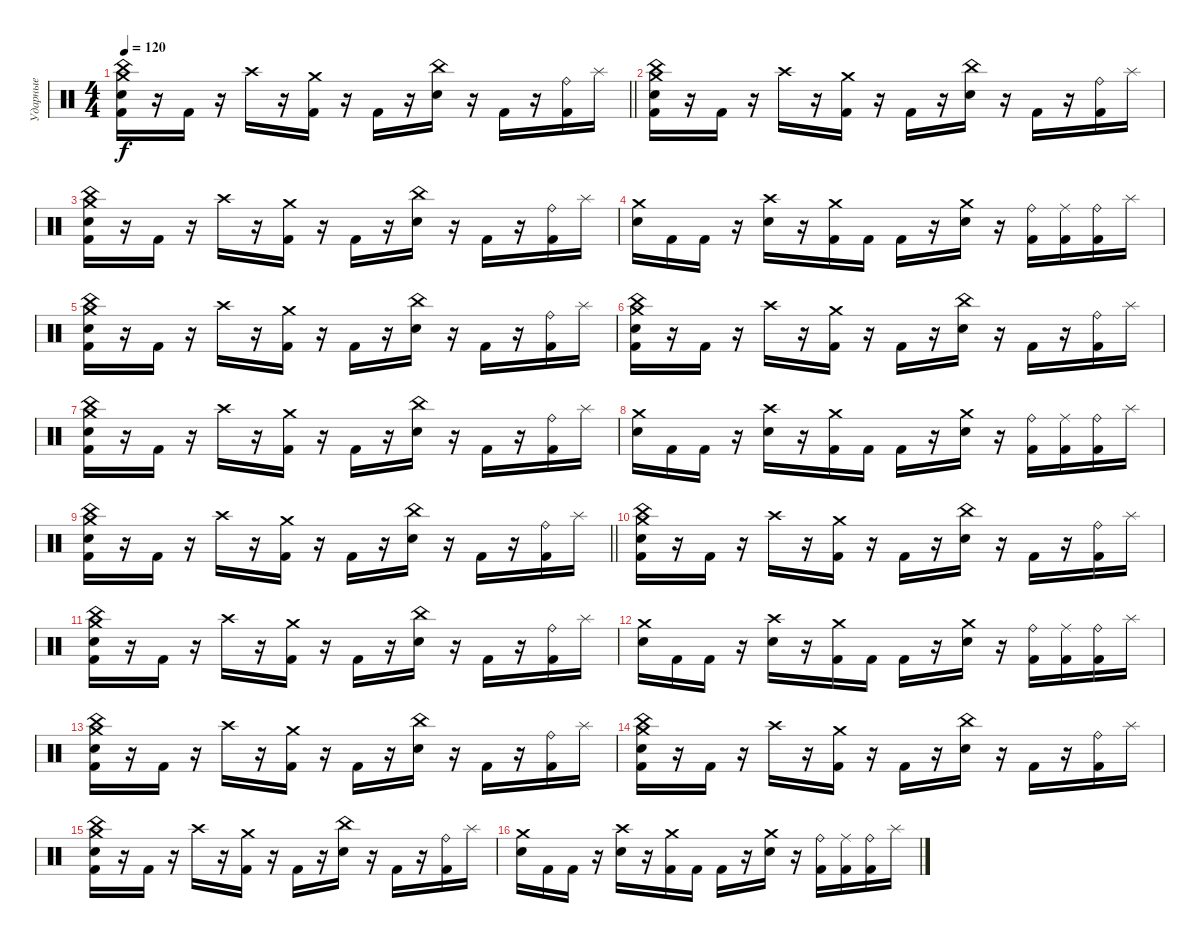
\track ("Ударные" "Ударные") {instrument percussion}
\staff {score}
\articulation defaults
\ts (4 4)
\tempo 120
\clef neutral
\barLineRight lightlight
\ks c
("Crash medium (hit)" "China (hit)" "Electric Snare (hit)" "Kick (hit) 2").16{dy f} r.16 "Kick (hit) 2".16 r.16 "Crash high (hit)".16 r.16 ("Crash medium (hit)" "Kick (hit) 2").16 r.16 "Kick (hit) 2".16 r.16 ("China (hit)" "Electric Snare (hit)").16 r.16 "Kick (hit) 2".16 r.16 ("Ride (bell)" "Kick (hit) 2").16 "Splash (hit)".16 |
("Crash medium (hit)" "China (hit)" "Electric Snare (hit)" "Kick (hit) 2").16 r.16 "Kick (hit) 2".16 r.16 "Crash high (hit)".16 r.16 ("Crash medium (hit)" "Kick (hit) 2").16 r.16 "Kick (hit) 2".16 r.16 ("China (hit)" "Electric Snare (hit)").16 r.16 "Kick (hit) 2".16 r.16 ("Ride (bell)" "Kick (hit) 2").16 "Splash (hit)".16 |
("Crash medium (hit)" "China (hit)" "Electric Snare (hit)" "Kick (hit) 2").16 r.16 "Kick (hit) 2".16 r.16 "Crash high (hit)".16 r.16 ("Crash medium (hit)" "Kick (hit) 2").16 r.16 "Kick (hit) 2".16 r.16 ("China (hit)" "Electric Snare (hit)").16 r.16 "Kick (hit) 2".16 r.16 ("Ride (bell)" "Kick (hit) 2").16 "Splash (hit)".16 |
("Crash medium (hit)" "Electric Snare (hit)").16 "Kick (hit) 2".16 "Kick (hit) 2".16 r.16 ("Crash high (hit)" "Electric Snare (hit)").16 r.16 ("Crash medium (hit)" "Kick (hit) 2").16 "Kick (hit) 2".16 "Kick (hit) 2".16 r.16 ("Crash medium (hit)" "Electric Snare (hit)").16 r.16 ("Ride (bell)" "Kick (hit) 2").16 ("Ride (middle)" "Kick (hit) 2").16 ("Ride (bell)" "Kick (hit) 2").16 "Splash (hit)".16 |
("Crash medium (hit)" "China (hit)" "Electric Snare (hit)" "Kick (hit) 2").16 r.16 "Kick (hit) 2".16 r.16 "Crash high (hit)".16 r.16 ("Crash medium (hit)" "Kick (hit) 2").16 r.16 "Kick (hit) 2".16 r.16 ("China (hit)" "Electric Snare (hit)").16 r.16 "Kick (hit) 2".16 r.16 ("Ride (bell)" "Kick (hit) 2").16 "Splash (hit)".16 |
("Crash medium (hit)" "China (hit)" "Electric Snare (hit)" "Kick (hit) 2").16 r.16 "Kick (hit) 2".16 r.16 "Crash high (hit)".16 r.16 ("Crash medium (hit)" "Kick (hit) 2").16 r.16 "Kick (hit) 2".16 r.16 ("China (hit)" "Electric Snare (hit)").16 r.16 "Kick (hit) 2".16 r.16 ("Ride (bell)" "Kick (hit) 2").16 "Splash (hit)".16 |
("Crash medium (hit)" "China (hit)" "Electric Snare (hit)" "Kick (hit) 2").16 r.16 "Kick (hit) 2".16 r.16 "Crash high (hit)".16 r.16 ("Crash medium (hit)" "Kick (hit) 2").16 r.16 "Kick (hit) 2".16 r.16 ("China (hit)" "Electric Snare (hit)").16 r.16 "Kick (hit) 2".16 r.16 ("Ride (bell)" "Kick (hit) 2").16 "Splash (hit)".16 |
("Crash medium (hit)" "Electric Snare (hit)").16 "Kick (hit) 2".16 "Kick (hit) 2".16 r.16 ("Crash high (hit)" "Electric Snare (hit)").16 r.16 ("Crash medium (hit)" "Kick (hit) 2").16 "Kick (hit) 2".16 "Kick (hit) 2".16 r.16 ("Crash medium (hit)" "Electric Snare (hit)").16 r.16 ("Ride (bell)" "Kick (hit) 2").16 ("Ride (middle)" "Kick (hit) 2").16 ("Ride (bell)" "Kick (hit) 2").16 "Splash (hit)".16 |
\barLineRight lightlight
("Crash medium (hit)" "China (hit)" "Electric Snare (hit)" "Kick (hit) 2").16 r.16 "Kick (hit) 2".16 r.16 "Crash high (hit)".16 r.16 ("Crash medium (hit)" "Kick (hit) 2").16 r.16 "Kick (hit) 2".16 r.16 ("China (hit)" "Electric Snare (hit)").16 r.16 "Kick (hit) 2".16 r.16 ("Ride (bell)" "Kick (hit) 2").16 "Splash (hit)".16 |
("Crash medium (hit)" "China (hit)" "Electric Snare (hit)" "Kick (hit) 2").16 r.16 "Kick (hit) 2".16 r.16 "Crash high (hit)".16 r.16 ("Crash medium (hit)" "Kick (hit) 2").16 r.16 "Kick (hit) 2".16 r.16 ("China (hit)" "Electric Snare (hit)").16 r.16 "Kick (hit) 2".16 r.16 ("Ride (bell)" "Kick (hit) 2").16 "Splash (hit)".16 |
("Crash medium (hit)" "China (hit)" "Electric Snare (hit)" "Kick (hit) 2").16 r.16 "Kick (hit) 2".16 r.16 "Crash high (hit)".16 r.16 ("Crash medium (hit)" "Kick (hit) 2").16 r.16 "Kick (hit) 2".16 r.16 ("China (hit)" "Electric Snare (hit)").16 r.16 "Kick (hit) 2".16 r.16 ("Ride (bell)" "Kick (hit) 2").16 "Splash (hit)".16 |
("Crash medium (hit)" "Electric Snare (hit)").16 "Kick (hit) 2".16 "Kick (hit) 2".16 r.16 ("Crash high (hit)" "Electric Snare (hit)").16 r.16 ("Crash medium (hit)" "Kick (hit) 2").16 "Kick (hit) 2".16 "Kick (hit) 2".16 r.16 ("Crash medium (hit)" "Electric Snare (hit)").16 r.16 ("Ride (bell)" "Kick (hit) 2").16 ("Ride (middle)" "Kick (hit) 2").16 ("Ride (bell)" "Kick (hit) 2").16 "Splash (hit)".16 |
("Crash medium (hit)" "China (hit)" "Electric Snare (hit)" "Kick (hit) 2").16 r.16 "Kick (hit) 2".16 r.16 "Crash high (hit)".16 r.16 ("Crash medium (hit)" "Kick (hit) 2").16 r.16 "Kick (hit) 2".16 r.16 ("China (hit)" "Electric Snare (hit)").16 r.16 "Kick (hit) 2".16 r.16 ("Ride (bell)" "Kick (hit) 2").16 "Splash (hit)".16 |
("Crash medium (hit)" "China (hit)" "Electric Snare (hit)" "Kick (hit) 2").16 r.16 "Kick (hit) 2".16 r.16 "Crash high (hit)".16 r.16 ("Crash medium (hit)" "Kick (hit) 2").16 r.16 "Kick (hit) 2".16 r.16 ("China (hit)" "Electric Snare (hit)").16 r.16 "Kick (hit) 2".16 r.16 ("Ride (bell)" "Kick (hit) 2").16 "Splash (hit)".16 |
("Crash medium (hit)" "China (hit)" "Electric Snare (hit)" "Kick (hit) 2").16 r.16 "Kick (hit) 2".16 r.16 "Crash high (hit)".16 r.16 ("Crash medium (hit)" "Kick (hit) 2").16 r.16 "Kick (hit) 2".16 r.16 ("China (hit)" "Electric Snare (hit)").16 r.16 "Kick (hit) 2".16 r.16 ("Ride (bell)" "Kick (hit) 2").16 "Splash (hit)".16 |
("Crash medium (hit)" "Electric Snare (hit)").16 "Kick (hit) 2".16 "Kick (hit) 2".16 r.16 ("Crash high (hit)" "Electric Snare (hit)").16 r.16 ("Crash medium (hit)" "Kick (hit) 2").16 "Kick (hit) 2".16 "Kick (hit) 2".16 r.16 ("Crash medium (hit)" "Electric Snare (hit)").16 r.16 ("Ride (bell)" "Kick (hit) 2").16 ("Ride (middle)" "Kick (hit) 2").16 ("Ride (bell)" "Kick (hit) 2").16 "Splash (hit)".16
